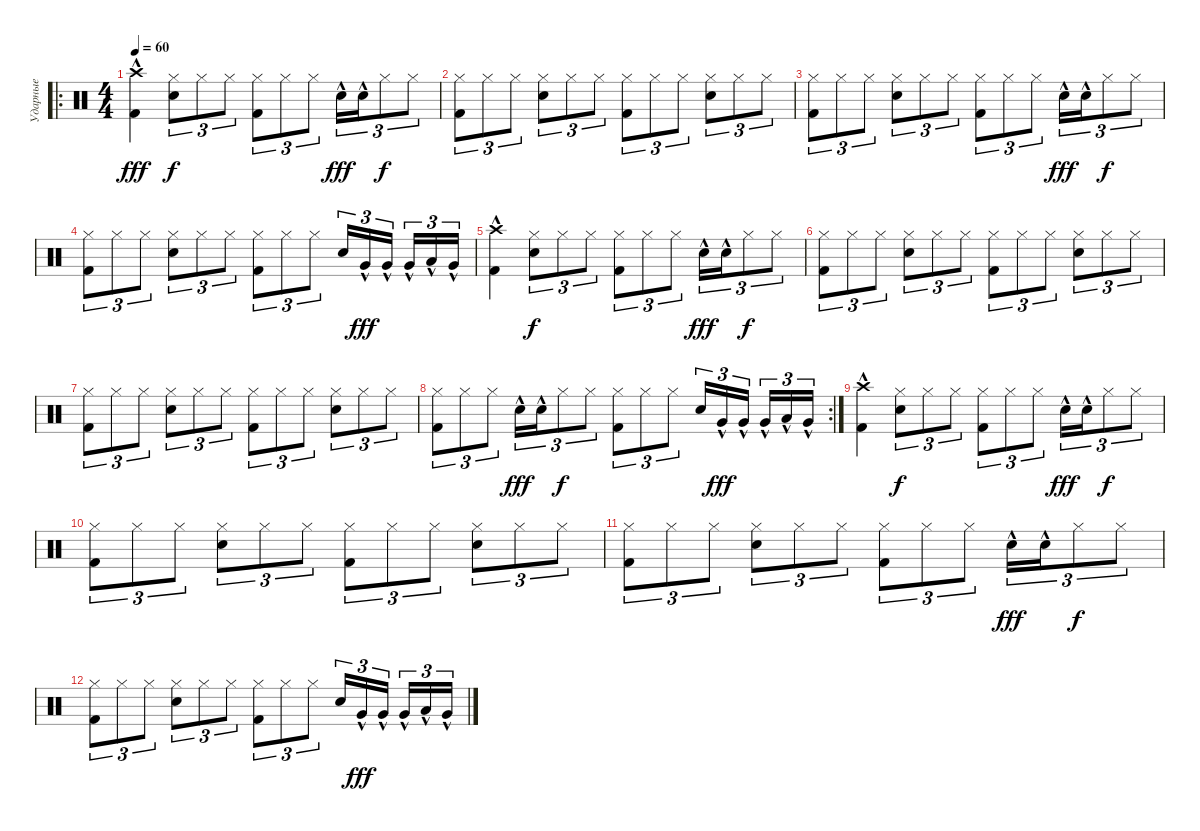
\track ("Ударные" "Ударные") {instrument percussion}
\staff {score}
\articulation defaults
\ro
\ts (4 4)
\tempo 60
\clef neutral
\ks c
("Kick (hit) 2" "Crash high (hit)"{hac}).4{dy fff} ("Snare (hit) 2" "Hi-Hat (closed)").8{tu (3 2) dy f} "Hi-Hat (closed)".8{tu (3 2)} "Hi-Hat (closed)".8{tu (3 2)} ("Kick (hit) 2" "Hi-Hat (closed)").8{tu (3 2)} "Hi-Hat (closed)".8{tu (3 2)} "Hi-Hat (closed)".8{tu (3 2)} "Snare (hit) 2"{hac}.16{tu (3 2) dy fff} "Snare (hit) 2"{hac}.16{tu (3 2)} "Hi-Hat (closed)".8{tu (3 2) dy f} "Hi-Hat (closed)".8{tu (3 2)} |
("Kick (hit) 2" "Hi-Hat (closed)").8{tu (3 2)} "Hi-Hat (closed)".8{tu (3 2)} "Hi-Hat (closed)".8{tu (3 2)} ("Snare (hit) 2" "Hi-Hat (closed)").8{tu (3 2)} "Hi-Hat (closed)".8{tu (3 2)} "Hi-Hat (closed)".8{tu (3 2)} ("Kick (hit) 2" "Hi-Hat (closed)").8{tu (3 2)} "Hi-Hat (closed)".8{tu (3 2)} "Hi-Hat (closed)".8{tu (3 2)} ("Snare (hit) 2" "Hi-Hat (closed)").8{tu (3 2)} "Hi-Hat (closed)".8{tu (3 2)} "Hi-Hat (closed)".8{tu (3 2)} |
("Kick (hit) 2" "Hi-Hat (closed)").8{tu (3 2)} "Hi-Hat (closed)".8{tu (3 2)} "Hi-Hat (closed)".8{tu (3 2)} ("Snare (hit) 2" "Hi-Hat (closed)").8{tu (3 2)} "Hi-Hat (closed)".8{tu (3 2)} "Hi-Hat (closed)".8{tu (3 2)} ("Kick (hit) 2" "Hi-Hat (closed)").8{tu (3 2)} "Hi-Hat (closed)".8{tu (3 2)} "Hi-Hat (closed)".8{tu (3 2)} "Snare (hit) 2"{hac}.16{tu (3 2) dy fff} "Snare (hit) 2"{hac}.16{tu (3 2)} "Hi-Hat (closed)".8{tu (3 2) dy f} "Hi-Hat (closed)".8{tu (3 2)} |
("Kick (hit) 2" "Hi-Hat (closed)").8{tu (3 2)} "Hi-Hat (closed)".8{tu (3 2)} "Hi-Hat (closed)".8{tu (3 2)} ("Snare (hit) 2" "Hi-Hat (closed)").8{tu (3 2)} "Hi-Hat (closed)".8{tu (3 2)} "Hi-Hat (closed)".8{tu (3 2)} ("Kick (hit) 2" "Hi-Hat (closed)").8{tu (3 2)} "Hi-Hat (closed)".8{tu (3 2)} "Hi-Hat (closed)".8{tu (3 2)} "Snare (hit) 2".16{tu (3 2)} "Very Low Tom (hit)"{hac}.16{tu (3 2) dy fff} "Very Low Tom (hit)"{hac}.16{tu (3 2) beam splitsecondary} "Very Low Tom (hit)"{hac}.16{tu (3 2)} "Low Floor Tom (hit)"{hac}.16{tu (3 2)} "Very Low Tom (hit)"{hac}.16{tu (3 2)} |
("Kick (hit) 2" "Crash high (hit)"{hac}).4 ("Snare (hit) 2" "Hi-Hat (closed)").8{tu (3 2) dy f} "Hi-Hat (closed)".8{tu (3 2)} "Hi-Hat (closed)".8{tu (3 2)} ("Kick (hit) 2" "Hi-Hat (closed)").8{tu (3 2)} "Hi-Hat (closed)".8{tu (3 2)} "Hi-Hat (closed)".8{tu (3 2)} "Snare (hit) 2"{hac}.16{tu (3 2) dy fff} "Snare (hit) 2"{hac}.16{tu (3 2)} "Hi-Hat (closed)".8{tu (3 2) dy f} "Hi-Hat (closed)".8{tu (3 2)} |
("Kick (hit) 2" "Hi-Hat (closed)").8{tu (3 2)} "Hi-Hat (closed)".8{tu (3 2)} "Hi-Hat (closed)".8{tu (3 2)} ("Snare (hit) 2" "Hi-Hat (closed)").8{tu (3 2)} "Hi-Hat (closed)".8{tu (3 2)} "Hi-Hat (closed)".8{tu (3 2)} ("Kick (hit) 2" "Hi-Hat (closed)").8{tu (3 2)} "Hi-Hat (closed)".8{tu (3 2)} "Hi-Hat (closed)".8{tu (3 2)} ("Snare (hit) 2" "Hi-Hat (closed)").8{tu (3 2)} "Hi-Hat (closed)".8{tu (3 2)} "Hi-Hat (closed)".8{tu (3 2)} |
("Kick (hit) 2" "Hi-Hat (closed)").8{tu (3 2)} "Hi-Hat (closed)".8{tu (3 2)} "Hi-Hat (closed)".8{tu (3 2)} ("Snare (hit) 2" "Hi-Hat (closed)").8{tu (3 2)} "Hi-Hat (closed)".8{tu (3 2)} "Hi-Hat (closed)".8{tu (3 2)} ("Kick (hit) 2" "Hi-Hat (closed)").8{tu (3 2)} "Hi-Hat (closed)".8{tu (3 2)} "Hi-Hat (closed)".8{tu (3 2)} ("Snare (hit) 2" "Hi-Hat (closed)").8{tu (3 2)} "Hi-Hat (closed)".8{tu (3 2)} "Hi-Hat (closed)".8{tu (3 2)} |
\rc 2
("Kick (hit) 2" "Hi-Hat (closed)").8{tu (3 2)} "Hi-Hat (closed)".8{tu (3 2)} "Hi-Hat (closed)".8{tu (3 2)} "Snare (hit) 2"{hac}.16{tu (3 2) dy fff} "Snare (hit) 2"{hac}.16{tu (3 2)} "Hi-Hat (closed)".8{tu (3 2) dy f} "Hi-Hat (closed)".8{tu (3 2)} ("Kick (hit) 2" "Hi-Hat (closed)").8{tu (3 2)} "Hi-Hat (closed)".8{tu (3 2)} "Hi-Hat (closed)".8{tu (3 2)} "Snare (hit) 2".16{tu (3 2)} "Very Low Tom (hit)"{hac}.16{tu (3 2) dy fff} "Very Low Tom (hit)"{hac}.16{tu (3 2) beam splitsecondary} "Very Low Tom (hit)"{hac}.16{tu (3 2)} "Low Floor Tom (hit)"{hac}.16{tu (3 2)} "Very Low Tom (hit)"{hac}.16{tu (3 2)} |
("Kick (hit) 2" "Crash high (hit)"{hac}).4 ("Snare (hit) 2" "Hi-Hat (closed)").8{tu (3 2) dy f} "Hi-Hat (closed)".8{tu (3 2)} "Hi-Hat (closed)".8{tu (3 2)} ("Kick (hit) 2" "Hi-Hat (closed)").8{tu (3 2)} "Hi-Hat (closed)".8{tu (3 2)} "Hi-Hat (closed)".8{tu (3 2)} "Snare (hit) 2"{hac}.16{tu (3 2) dy fff} "Snare (hit) 2"{hac}.16{tu (3 2)} "Hi-Hat (closed)".8{tu (3 2) dy f} "Hi-Hat (closed)".8{tu (3 2)} |
("Kick (hit) 2" "Hi-Hat (closed)").8{tu (3 2)} "Hi-Hat (closed)".8{tu (3 2)} "Hi-Hat (closed)".8{tu (3 2)} ("Snare (hit) 2" "Hi-Hat (closed)").8{tu (3 2)} "Hi-Hat (closed)".8{tu (3 2)} "Hi-Hat (closed)".8{tu (3 2)} ("Kick (hit) 2" "Hi-Hat (closed)").8{tu (3 2)} "Hi-Hat (closed)".8{tu (3 2)} "Hi-Hat (closed)".8{tu (3 2)} ("Snare (hit) 2" "Hi-Hat (closed)").8{tu (3 2)} "Hi-Hat (closed)".8{tu (3 2)} "Hi-Hat (closed)".8{tu (3 2)} |
("Kick (hit) 2" "Hi-Hat (closed)").8{tu (3 2)} "Hi-Hat (closed)".8{tu (3 2)} "Hi-Hat (closed)".8{tu (3 2)} ("Snare (hit) 2" "Hi-Hat (closed)").8{tu (3 2)} "Hi-Hat (closed)".8{tu (3 2)} "Hi-Hat (closed)".8{tu (3 2)} ("Kick (hit) 2" "Hi-Hat (closed)").8{tu (3 2)} "Hi-Hat (closed)".8{tu (3 2)} "Hi-Hat (closed)".8{tu (3 2)} "Snare (hit) 2"{hac}.16{tu (3 2) dy fff} "Snare (hit) 2"{hac}.16{tu (3 2)} "Hi-Hat (closed)".8{tu (3 2) dy f} "Hi-Hat (closed)".8{tu (3 2)} |
("Kick (hit) 2" "Hi-Hat (closed)").8{tu (3 2)} "Hi-Hat (closed)".8{tu (3 2)} "Hi-Hat (closed)".8{tu (3 2)} ("Snare (hit) 2" "Hi-Hat (closed)").8{tu (3 2)} "Hi-Hat (closed)".8{tu (3 2)} "Hi-Hat (closed)".8{tu (3 2)} ("Kick (hit) 2" "Hi-Hat (closed)").8{tu (3 2)} "Hi-Hat (closed)".8{tu (3 2)} "Hi-Hat (closed)".8{tu (3 2)} "Snare (hit) 2".16{tu (3 2)} "Very Low Tom (hit)"{hac}.16{tu (3 2) dy fff} "Very Low Tom (hit)"{hac}.16{tu (3 2) beam splitsecondary} "Very Low Tom (hit)"{hac}.16{tu (3 2)} "Low Floor Tom (hit)"{hac}.16{tu (3 2)} "Very Low Tom (hit)"{hac}.16{tu (3 2)}
